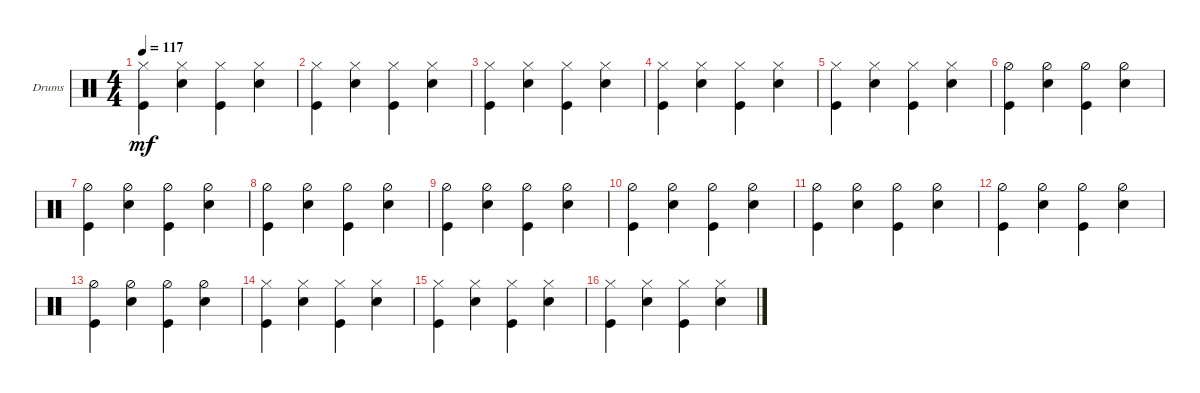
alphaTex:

\defaultSystemsLayout 4
\bracketExtendMode groupsimilarinstruments
\firstSystemTrackNameOrientation horizontal
\otherSystemsTrackNameOrientation horizontal
\track ("Drumkit" "Drums") {instrument percussion}
\staff {score}
\articulation defaults
\ts (4 4)
\tempo 117
\clef neutral
\ks c
("Kick (hit)" "Hi-Hat (closed)").4{dy mf} ("Snare (hit) 2" "Hi-Hat (closed)").4 ("Kick (hit)" "Hi-Hat (closed)").4 ("Snare (hit) 2" "Hi-Hat (closed)").4 |
("Kick (hit)" "Hi-Hat (closed)").4 ("Snare (hit) 2" "Hi-Hat (closed)").4 ("Kick (hit)" "Hi-Hat (closed)").4 ("Snare (hit) 2" "Hi-Hat (closed)").4 |
("Kick (hit)" "Hi-Hat (closed)").4 ("Snare (hit) 2" "Hi-Hat (closed)").4 ("Kick (hit)" "Hi-Hat (closed)").4 ("Snare (hit) 2" "Hi-Hat (closed)").4 |
("Kick (hit)" "Hi-Hat (closed)").4 ("Snare (hit) 2" "Hi-Hat (closed)").4 ("Kick (hit)" "Hi-Hat (closed)").4 ("Snare (hit) 2" "Hi-Hat (closed)").4 |
("Kick (hit)" "Hi-Hat (closed)").4 ("Snare (hit) 2" "Hi-Hat (closed)").4 ("Kick (hit)" "Hi-Hat (closed)").4 ("Snare (hit) 2" "Hi-Hat (closed)").4 |
("Kick (hit)" "Hi-Hat (half)").4 ("Snare (hit) 2" "Hi-Hat (half)").4 ("Kick (hit)" "Hi-Hat (half)").4 ("Snare (hit) 2" "Hi-Hat (half)").4 |
("Kick (hit)" "Hi-Hat (half)").4 ("Snare (hit) 2" "Hi-Hat (half)").4 ("Kick (hit)" "Hi-Hat (half)").4 ("Snare (hit) 2" "Hi-Hat (half)").4 |
("Kick (hit)" "Hi-Hat (half)").4 ("Snare (hit) 2" "Hi-Hat (half)").4 ("Kick (hit)" "Hi-Hat (half)").4 ("Snare (hit) 2" "Hi-Hat (half)").4 |
("Kick (hit)" "Hi-Hat (half)").4 ("Snare (hit) 2" "Hi-Hat (half)").4 ("Kick (hit)" "Hi-Hat (half)").4 ("Snare (hit) 2" "Hi-Hat (half)").4 |
("Kick (hit)" "Hi-Hat (half)").4 ("Snare (hit) 2" "Hi-Hat (half)").4 ("Kick (hit)" "Hi-Hat (half)").4 ("Snare (hit) 2" "Hi-Hat (half)").4 |
("Kick (hit)" "Hi-Hat (half)").4 ("Snare (hit) 2" "Hi-Hat (half)").4 ("Kick (hit)" "Hi-Hat (half)").4 ("Snare (hit) 2" "Hi-Hat (half)").4 |
("Kick (hit)" "Hi-Hat (half)").4 ("Snare (hit) 2" "Hi-Hat (half)").4 ("Kick (hit)" "Hi-Hat (half)").4 ("Snare (hit) 2" "Hi-Hat (half)").4 |
("Kick (hit)" "Hi-Hat (half)").4 ("Snare (hit) 2" "Hi-Hat (half)").4 ("Kick (hit)" "Hi-Hat (half)").4 ("Snare (hit) 2" "Hi-Hat (half)").4 |
("Kick (hit)" "Hi-Hat (closed)").4 ("Snare (hit) 2" "Hi-Hat (closed)").4 ("Kick (hit)" "Hi-Hat (closed)").4 ("Snare (hit) 2" "Hi-Hat (closed)").4 |
("Kick (hit)" "Hi-Hat (closed)").4 ("Snare (hit) 2" "Hi-Hat (closed)").4 ("Kick (hit)" "Hi-Hat (closed)").4 ("Snare (hit) 2" "Hi-Hat (closed)").4 |
("Kick (hit)" "Hi-Hat (closed)").4 ("Snare (hit) 2" "Hi-Hat (closed)").4 ("Kick (hit)" "Hi-Hat (closed)").4 ("Snare (hit) 2" "Hi-Hat (closed)").4
